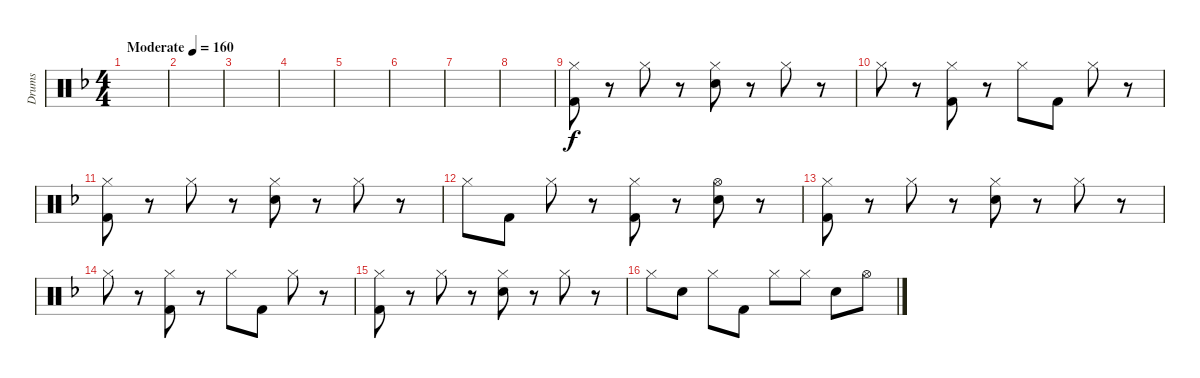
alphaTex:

\track ("Drums" "Drums") {instrument percussion}
\staff {score}
\articulation defaults
\ts (4 4)
\tempo (160 "Moderate")
\clef neutral
\ks dminor
|
|
|
|
|
|
|
|
("Hi-Hat (closed)" "Kick (hit) 2").8 r.8 "Hi-Hat (closed)".8 r.8 ("Hi-Hat (closed)" "Electric Snare (hit)").8 r.8 "Hi-Hat (closed)".8 r.8 |
"Hi-Hat (closed)".8 r.8 ("Hi-Hat (closed)" "Kick (hit) 2").8 r.8 "Hi-Hat (closed)".8 "Kick (hit) 2".8 "Hi-Hat (closed)".8 r.8 |
("Hi-Hat (closed)" "Kick (hit) 2").8 r.8 "Hi-Hat (closed)".8 r.8 ("Hi-Hat (closed)" "Electric Snare (hit)").8 r.8 "Hi-Hat (closed)".8 r.8 |
"Hi-Hat (closed)".8 "Kick (hit) 2".8 "Hi-Hat (closed)".8 r.8 ("Hi-Hat (closed)" "Kick (hit) 2").8 r.8 ("Hi-Hat (open)" "Electric Snare (hit)").8 r.8 |
("Hi-Hat (closed)" "Kick (hit) 2").8 r.8 "Hi-Hat (closed)".8 r.8 ("Hi-Hat (closed)" "Electric Snare (hit)").8 r.8 "Hi-Hat (closed)".8 r.8 |
"Hi-Hat (closed)".8 r.8 ("Hi-Hat (closed)" "Kick (hit) 2").8 r.8 "Hi-Hat (closed)".8 "Kick (hit) 2".8 "Hi-Hat (closed)".8 r.8 |
("Hi-Hat (closed)" "Kick (hit) 2").8 r.8 "Hi-Hat (closed)".8 r.8 ("Hi-Hat (closed)" "Electric Snare (hit)").8 r.8 "Hi-Hat (closed)".8 r.8 |
"Hi-Hat (closed)".8 "Electric Snare (hit)".8 "Hi-Hat (closed)".8 "Kick (hit) 2".8 "Hi-Hat (closed)".8 "Hi-Hat (closed)".8 "Electric Snare (hit)".8 "Hi-Hat (open)".8
